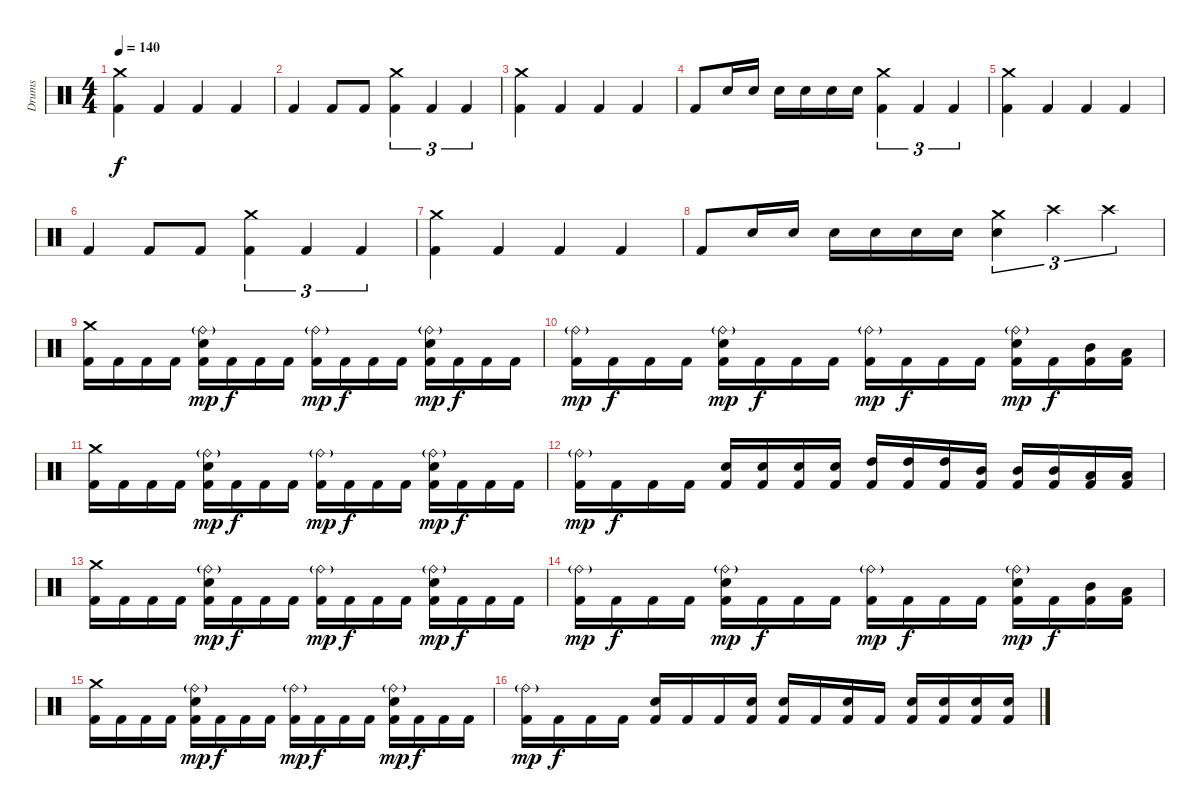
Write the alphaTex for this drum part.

\track ("Drums" "Drums") {instrument percussion}
\staff {score}
\articulation defaults
\ts (4 4)
\tempo 140
\clef neutral
\ks c
("Crash medium (hit)" "Kick (hit) 2").4{dy f} "Kick (hit) 2".4 "Kick (hit) 2".4 "Kick (hit) 2".4 |
"Kick (hit) 2".4 "Kick (hit) 2".8 "Kick (hit) 2".8 ("Crash medium (hit)" "Kick (hit) 2").4{tu (3 2)} "Kick (hit) 2".4{tu (3 2)} "Kick (hit) 2".4{tu (3 2)} |
("Crash medium (hit)" "Kick (hit) 2").4 "Kick (hit) 2".4 "Kick (hit) 2".4 "Kick (hit) 2".4 |
"Kick (hit) 2".8 "Electric Snare (hit)".16 "Electric Snare (hit)".16 "Electric Snare (hit)".16 "Electric Snare (hit)".16 "Electric Snare (hit)".16 "Electric Snare (hit)".16 ("Crash medium (hit)" "Kick (hit) 2").4{tu (3 2)} "Kick (hit) 2".4{tu (3 2)} "Kick (hit) 2".4{tu (3 2)} |
("Crash medium (hit)" "Kick (hit) 2").4 "Kick (hit) 2".4 "Kick (hit) 2".4 "Kick (hit) 2".4 |
"Kick (hit) 2".4 "Kick (hit) 2".8 "Kick (hit) 2".8 ("Crash medium (hit)" "Kick (hit) 2").4{tu (3 2)} "Kick (hit) 2".4{tu (3 2)} "Kick (hit) 2".4{tu (3 2)} |
("Crash medium (hit)" "Kick (hit) 2").4 "Kick (hit) 2".4 "Kick (hit) 2".4 "Kick (hit) 2".4 |
"Kick (hit) 2".8 "Electric Snare (hit)".16 "Electric Snare (hit)".16 "Electric Snare (hit)".16 "Electric Snare (hit)".16 "Electric Snare (hit)".16 "Electric Snare (hit)".16 ("Crash medium (hit)" "Electric Snare (hit)").4{tu (3 2)} "Crash high (hit)".4{tu (3 2)} "Crash high (hit)".4{tu (3 2)} |
("Crash medium (hit)" "Kick (hit) 2").16 "Kick (hit) 2".16 "Kick (hit) 2".16 "Kick (hit) 2".16 ("Ride (bell)"{g} "Electric Snare (hit)" "Kick (hit) 2").16{dy mp} "Kick (hit) 2".16{dy f} "Kick (hit) 2".16 "Kick (hit) 2".16 ("Ride (bell)"{g} "Kick (hit) 2").16{dy mp} "Kick (hit) 2".16{dy f} "Kick (hit) 2".16 "Kick (hit) 2".16 ("Ride (bell)"{g} "Electric Snare (hit)" "Kick (hit) 2").16{dy mp} "Kick (hit) 2".16{dy f} "Kick (hit) 2".16 "Kick (hit) 2".16 |
("Ride (bell)"{g} "Kick (hit) 2").16{dy mp} "Kick (hit) 2".16{dy f} "Kick (hit) 2".16 "Kick (hit) 2".16 ("Ride (bell)"{g} "Electric Snare (hit)" "Kick (hit) 2").16{dy mp} "Kick (hit) 2".16{dy f} "Kick (hit) 2".16 "Kick (hit) 2".16 ("Ride (bell)"{g} "Kick (hit) 2").16{dy mp} "Kick (hit) 2".16{dy f} "Kick (hit) 2".16 "Kick (hit) 2".16 ("Ride (bell)"{g} "Electric Snare (hit)" "Kick (hit) 2").16{dy mp} "Kick (hit) 2".16{dy f} ("Mid Tom (hit)" "Kick (hit) 2").16 ("Low Floor Tom (hit)" "Kick (hit) 2").16 |
("Crash medium (hit)" "Kick (hit) 2").16 "Kick (hit) 2".16 "Kick (hit) 2".16 "Kick (hit) 2".16 ("Ride (bell)"{g} "Electric Snare (hit)" "Kick (hit) 2").16{dy mp} "Kick (hit) 2".16{dy f} "Kick (hit) 2".16 "Kick (hit) 2".16 ("Ride (bell)"{g} "Kick (hit) 2").16{dy mp} "Kick (hit) 2".16{dy f} "Kick (hit) 2".16 "Kick (hit) 2".16 ("Ride (bell)"{g} "Electric Snare (hit)" "Kick (hit) 2").16{dy mp} "Kick (hit) 2".16{dy f} "Kick (hit) 2".16 "Kick (hit) 2".16 |
("Ride (bell)"{g} "Kick (hit) 2").16{dy mp} "Kick (hit) 2".16{dy f} "Kick (hit) 2".16 "Kick (hit) 2".16 ("Electric Snare (hit)" "Kick (hit) 2").16 ("Electric Snare (hit)" "Kick (hit) 2").16 ("Electric Snare (hit)" "Kick (hit) 2").16 ("Electric Snare (hit)" "Kick (hit) 2").16 ("High Tom (hit)" "Kick (hit) 2").16 ("High Tom (hit)" "Kick (hit) 2").16 ("High Tom (hit)" "Kick (hit) 2").16 ("Mid Tom (hit)" "Kick (hit) 2").16 ("Mid Tom (hit)" "Kick (hit) 2").16 ("Mid Tom (hit)" "Kick (hit) 2").16 ("Low Tom (hit)" "Kick (hit) 2").16 ("Low Tom (hit)" "Kick (hit) 2").16 |
("Crash medium (hit)" "Kick (hit) 2").16 "Kick (hit) 2".16 "Kick (hit) 2".16 "Kick (hit) 2".16 ("Ride (bell)"{g} "Electric Snare (hit)" "Kick (hit) 2").16{dy mp} "Kick (hit) 2".16{dy f} "Kick (hit) 2".16 "Kick (hit) 2".16 ("Ride (bell)"{g} "Kick (hit) 2").16{dy mp} "Kick (hit) 2".16{dy f} "Kick (hit) 2".16 "Kick (hit) 2".16 ("Ride (bell)"{g} "Electric Snare (hit)" "Kick (hit) 2").16{dy mp} "Kick (hit) 2".16{dy f} "Kick (hit) 2".16 "Kick (hit) 2".16 |
("Ride (bell)"{g} "Kick (hit) 2").16{dy mp} "Kick (hit) 2".16{dy f} "Kick (hit) 2".16 "Kick (hit) 2".16 ("Ride (bell)"{g} "Electric Snare (hit)" "Kick (hit) 2").16{dy mp} "Kick (hit) 2".16{dy f} "Kick (hit) 2".16 "Kick (hit) 2".16 ("Ride (bell)"{g} "Kick (hit) 2").16{dy mp} "Kick (hit) 2".16{dy f} "Kick (hit) 2".16 "Kick (hit) 2".16 ("Ride (bell)"{g} "Electric Snare (hit)" "Kick (hit) 2").16{dy mp} "Kick (hit) 2".16{dy f} ("Mid Tom (hit)" "Kick (hit) 2").16 ("Low Floor Tom (hit)" "Kick (hit) 2").16 |
("Crash medium (hit)" "Kick (hit) 2").16 "Kick (hit) 2".16 "Kick (hit) 2".16 "Kick (hit) 2".16 ("Ride (bell)"{g} "Electric Snare (hit)" "Kick (hit) 2").16{dy mp} "Kick (hit) 2".16{dy f} "Kick (hit) 2".16 "Kick (hit) 2".16 ("Ride (bell)"{g} "Kick (hit) 2").16{dy mp} "Kick (hit) 2".16{dy f} "Kick (hit) 2".16 "Kick (hit) 2".16 ("Ride (bell)"{g} "Electric Snare (hit)" "Kick (hit) 2").16{dy mp} "Kick (hit) 2".16{dy f} "Kick (hit) 2".16 "Kick (hit) 2".16 |
("Ride (bell)"{g} "Kick (hit) 2").16{dy mp} "Kick (hit) 2".16{dy f} "Kick (hit) 2".16 "Kick (hit) 2".16 ("Electric Snare (hit)" "Kick (hit) 2").16 "Kick (hit) 2".16 "Kick (hit) 2".16 ("Electric Snare (hit)" "Kick (hit) 2").16 ("Electric Snare (hit)" "Kick (hit) 2").16 "Kick (hit) 2".16 ("Electric Snare (hit)" "Kick (hit) 2").16 "Kick (hit) 2".16 ("Electric Snare (hit)" "Kick (hit) 2").16 ("Electric Snare (hit)" "Kick (hit) 2").16 ("Electric Snare (hit)" "Kick (hit) 2").16 ("Electric Snare (hit)" "Kick (hit) 2").16
